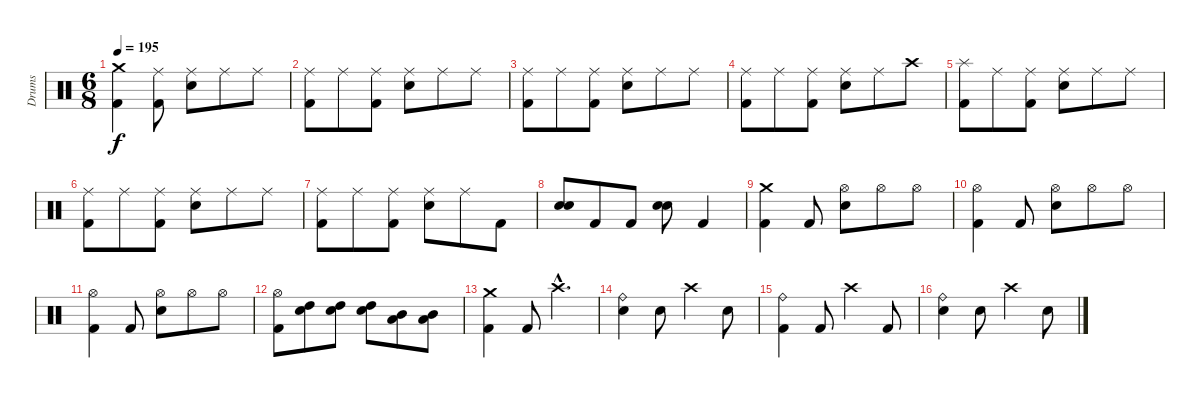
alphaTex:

\track ("Drums" "Drums") {instrument percussion}
\staff {score}
\articulation defaults
\ts (6 8)
\tempo 195
\clef neutral
\ks c
("Crash medium (hit)" "Kick (hit) 2").4{dy f} ("Ride (middle)" "Kick (hit) 2").8 ("Ride (middle)" "Electric Snare (hit)").8 "Ride (middle)".8 "Ride (middle)".8 |
("Ride (middle)" "Kick (hit) 2").8 "Ride (middle)".8 ("Ride (middle)" "Kick (hit) 2").8 ("Ride (middle)" "Electric Snare (hit)").8 "Ride (middle)".8 "Ride (middle)".8 |
("Ride (middle)" "Kick (hit) 2").8 "Ride (middle)".8 ("Ride (middle)" "Kick (hit) 2").8 ("Ride (middle)" "Electric Snare (hit)").8 "Ride (middle)".8 "Ride (middle)".8 |
("Ride (middle)" "Kick (hit) 2").8 "Ride (middle)".8 ("Ride (middle)" "Kick (hit) 2").8 ("Ride (middle)" "Electric Snare (hit)").8 "Ride (middle)".8 "Crash high (hit)".8 |
("Splash (hit)" "Kick (hit) 2").8 "Ride (middle)".8 ("Ride (middle)" "Kick (hit) 2").8 ("Ride (middle)" "Electric Snare (hit)").8 "Ride (middle)".8 "Ride (middle)".8 |
("Ride (middle)" "Kick (hit) 2").8 "Ride (middle)".8 ("Ride (middle)" "Kick (hit) 2").8 ("Ride (middle)" "Electric Snare (hit)").8 "Ride (middle)".8 "Ride (middle)".8 |
("Ride (middle)" "Kick (hit) 2").8 "Ride (middle)".8 ("Ride (middle)" "Kick (hit) 2").8 ("Ride (middle)" "Electric Snare (hit)").8 "Ride (middle)".8 "Kick (hit) 2".8 |
("Electric Snare (hit)" "Electric Snare (hit)").8{bd 240} "Kick (hit) 2".8 "Kick (hit) 2".8 ("Electric Snare (hit)" "Electric Snare (hit)").8{bd 120} "Kick (hit) 2".4 |
("Crash medium (hit)" "Kick (hit) 2").4 "Kick (hit) 2".8 ("Hi-Hat (open)" "Electric Snare (hit)").8 "Hi-Hat (open)".8 "Hi-Hat (open)".8 |
("Hi-Hat (open)" "Kick (hit) 2").4 "Kick (hit) 2".8 ("Hi-Hat (open)" "Electric Snare (hit)").8 "Hi-Hat (open)".8 "Hi-Hat (open)".8 |
("Hi-Hat (open)" "Kick (hit) 2").4 "Kick (hit) 2".8 ("Hi-Hat (open)" "Electric Snare (hit)").8 "Hi-Hat (open)".8 "Hi-Hat (open)".8 |
("Hi-Hat (open)" "Kick (hit) 2").8 ("Electric Snare (hit)" "High Tom (hit)").8 ("Electric Snare (hit)" "High Tom (hit)").8 ("Electric Snare (hit)" "High Tom (hit)").8 ("Mid Tom (hit)" "Low Tom (hit)").8 ("Mid Tom (hit)" "Low Tom (hit)").8 |
("Crash medium (hit)" "Kick (hit) 2").4 "Kick (hit) 2".8 "Crash high (hit)"{hac}.4{d} |
("Ride (bell)" "Electric Snare (hit)").4 "Electric Snare (hit)".8 "Crash high (hit)".4 "Electric Snare (hit)".8 |
("Ride (bell)" "Kick (hit) 2").4 "Kick (hit) 2".8 "Crash high (hit)".4 "Kick (hit) 2".8 |
("Ride (bell)" "Electric Snare (hit)").4 "Electric Snare (hit)".8 "Crash high (hit)".4 "Electric Snare (hit)".8
